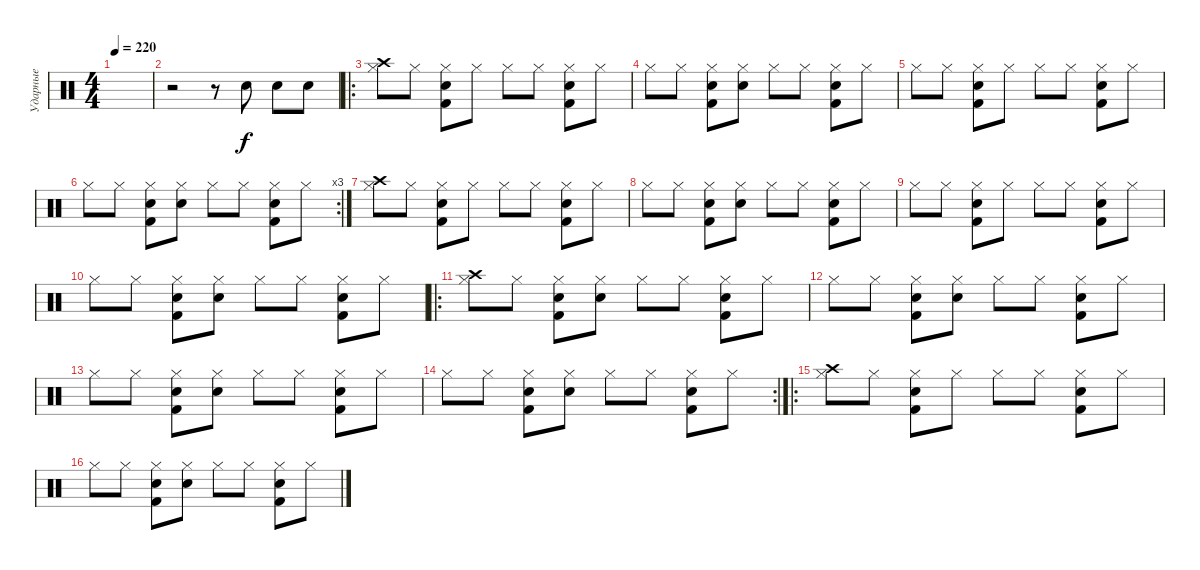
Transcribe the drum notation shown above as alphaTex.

\track ("Ударные" "Ударные") {instrument percussion}
\staff {score}
\articulation defaults
\ts (4 4)
\tempo 220
\clef neutral
\ks c
|
r.2 r.8 "Electric Snare (hit)".8 "Electric Snare (hit)".8 "Electric Snare (hit)".8 |
\ro
("Crash high (hit)" "Hi-Hat (closed)").8 "Hi-Hat (closed)".8 ("Hi-Hat (closed)" "Kick (hit) 2" "Electric Snare (hit)").8 "Hi-Hat (closed)".8 "Hi-Hat (closed)".8 "Hi-Hat (closed)".8 ("Hi-Hat (closed)" "Kick (hit) 2" "Electric Snare (hit)").8 "Hi-Hat (closed)".8 |
"Hi-Hat (closed)".8 "Hi-Hat (closed)".8 ("Hi-Hat (closed)" "Kick (hit) 2" "Electric Snare (hit)").8 ("Hi-Hat (closed)" "Electric Snare (hit)").8 "Hi-Hat (closed)".8 "Hi-Hat (closed)".8 ("Hi-Hat (closed)" "Kick (hit) 2" "Electric Snare (hit)").8 "Hi-Hat (closed)".8 |
"Hi-Hat (closed)".8 "Hi-Hat (closed)".8 ("Hi-Hat (closed)" "Kick (hit) 2" "Electric Snare (hit)").8 "Hi-Hat (closed)".8 "Hi-Hat (closed)".8 "Hi-Hat (closed)".8 ("Hi-Hat (closed)" "Kick (hit) 2" "Electric Snare (hit)").8 "Hi-Hat (closed)".8 |
\rc 3 "Hi-Hat (closed)".8 "Hi-Hat (closed)".8
("Hi-Hat (closed)" "Kick (hit) 2" "Electric Snare (hit)").8 ("Hi-Hat (closed)" "Electric Snare (hit)").8 "Hi-Hat (closed)".8 "Hi-Hat (closed)".8 ("Hi-Hat (closed)" "Kick (hit) 2" "Electric Snare (hit)").8 "Hi-Hat (closed)".8 |
("Crash high (hit)" "Hi-Hat (closed)").8 "Hi-Hat (closed)".8 ("Hi-Hat (closed)" "Kick (hit) 2" "Electric Snare (hit)").8 "Hi-Hat (closed)".8 "Hi-Hat (closed)".8 "Hi-Hat (closed)".8 ("Hi-Hat (closed)" "Kick (hit) 2" "Electric Snare (hit)").8 "Hi-Hat (closed)".8 |
"Hi-Hat (closed)".8 "Hi-Hat (closed)".8 ("Hi-Hat (closed)" "Kick (hit) 2" "Electric Snare (hit)").8 ("Hi-Hat (closed)" "Electric Snare (hit)").8 "Hi-Hat (closed)".8 "Hi-Hat (closed)".8 ("Hi-Hat (closed)" "Kick (hit) 2" "Electric Snare (hit)").8 "Hi-Hat (closed)".8 |
"Hi-Hat (closed)".8 "Hi-Hat (closed)".8 ("Hi-Hat (closed)" "Kick (hit) 2" "Electric Snare (hit)").8 "Hi-Hat (closed)".8 "Hi-Hat (closed)".8 "Hi-Hat (closed)".8 ("Hi-Hat (closed)" "Kick (hit) 2" "Electric Snare (hit)").8 "Hi-Hat (closed)".8 |
"Hi-Hat (closed)".8 "Hi-Hat (closed)".8 ("Hi-Hat (closed)" "Kick (hit) 2" "Electric Snare (hit)").8 ("Hi-Hat (closed)" "Electric Snare (hit)").8 "Hi-Hat (closed)".8 "Hi-Hat (closed)".8 ("Hi-Hat (closed)" "Kick (hit) 2" "Electric Snare (hit)").8 "Hi-Hat (closed)".8 |
\ro
("Crash high (hit)" "Hi-Hat (closed)").8 "Hi-Hat (closed)".8 ("Hi-Hat (closed)" "Kick (hit) 2" "Electric Snare (hit)").8 ("Hi-Hat (closed)" "Electric Snare (hit)").8 "Hi-Hat (closed)".8 "Hi-Hat (closed)".8 ("Hi-Hat (closed)" "Kick (hit) 2" "Electric Snare (hit)").8 "Hi-Hat (closed)".8 |
"Hi-Hat (closed)".8 "Hi-Hat (closed)".8 ("Hi-Hat (closed)" "Kick (hit) 2" "Electric Snare (hit)").8 ("Hi-Hat (closed)" "Electric Snare (hit)").8 "Hi-Hat (closed)".8 "Hi-Hat (closed)".8 ("Hi-Hat (closed)" "Kick (hit) 2" "Electric Snare (hit)").8 "Hi-Hat (closed)".8 |
"Hi-Hat (closed)".8 "Hi-Hat (closed)".8 ("Hi-Hat (closed)" "Kick (hit) 2" "Electric Snare (hit)").8 ("Hi-Hat (closed)" "Electric Snare (hit)").8 "Hi-Hat (closed)".8 "Hi-Hat (closed)".8 ("Hi-Hat (closed)" "Kick (hit) 2" "Electric Snare (hit)").8 "Hi-Hat (closed)".8 |
\rc 2 "Hi-Hat (closed)".8 "Hi-Hat (closed)".8
("Hi-Hat (closed)" "Kick (hit) 2" "Electric Snare (hit)").8 ("Hi-Hat (closed)" "Electric Snare (hit)").8 "Hi-Hat (closed)".8 "Hi-Hat (closed)".8 ("Hi-Hat (closed)" "Kick (hit) 2" "Electric Snare (hit)").8 "Hi-Hat (closed)".8 |
\ro
("Crash high (hit)" "Hi-Hat (closed)").8 "Hi-Hat (closed)".8 ("Hi-Hat (closed)" "Kick (hit) 2" "Electric Snare (hit)").8 "Hi-Hat (closed)".8 "Hi-Hat (closed)".8 "Hi-Hat (closed)".8 ("Hi-Hat (closed)" "Kick (hit) 2" "Electric Snare (hit)").8 "Hi-Hat (closed)".8 |
"Hi-Hat (closed)".8 "Hi-Hat (closed)".8 ("Hi-Hat (closed)" "Kick (hit) 2" "Electric Snare (hit)").8 ("Hi-Hat (closed)" "Electric Snare (hit)").8 "Hi-Hat (closed)".8 "Hi-Hat (closed)".8 ("Hi-Hat (closed)" "Kick (hit) 2" "Electric Snare (hit)").8 "Hi-Hat (closed)".8
